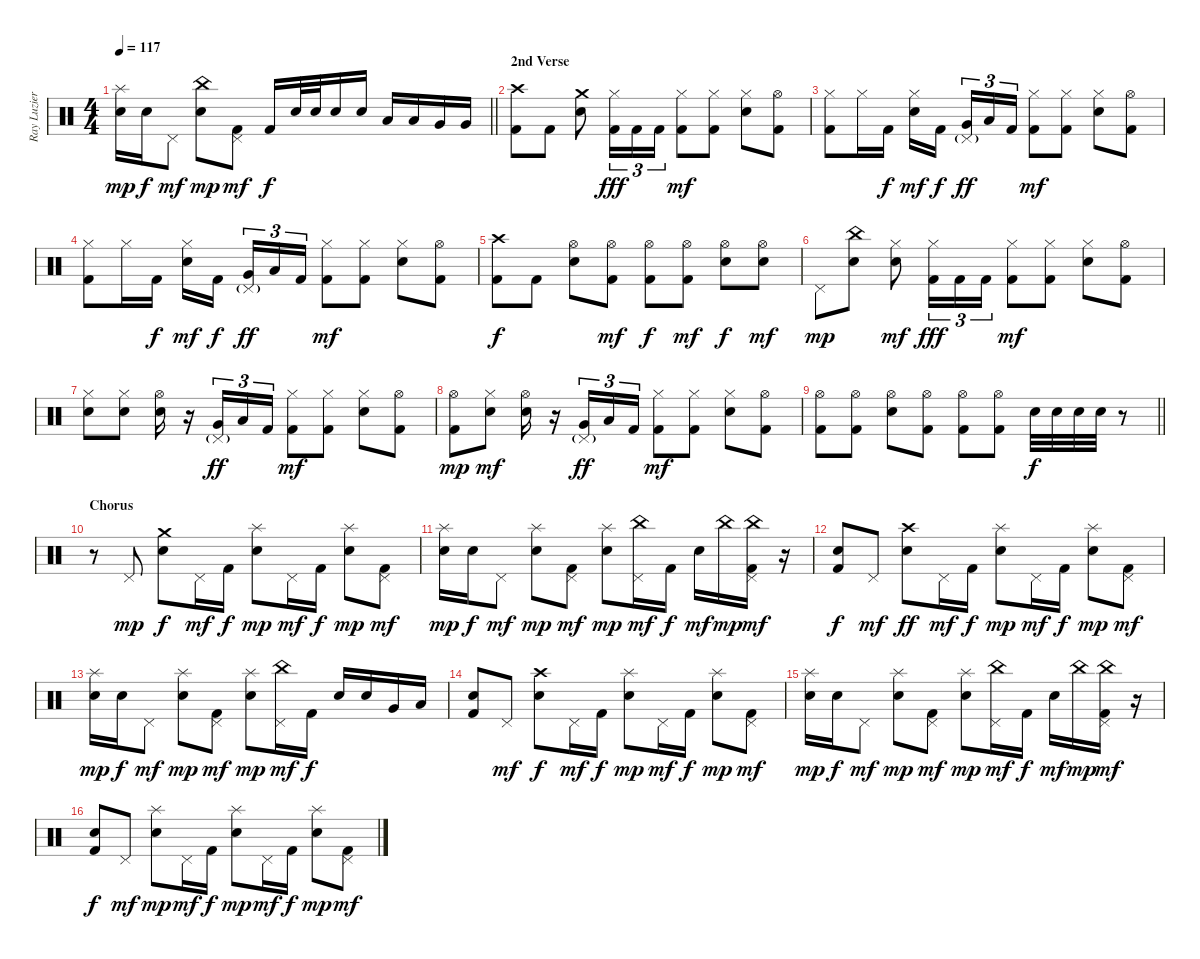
\track ("Ray Luzier" "Ray Luzier") {instrument percussion}
\staff {score}
\articulation defaults
\ts (4 4)
\tempo 117
\clef neutral
\barLineRight lightlight
\ks c
("Splash (hit)" "Snare (hit) 2").16{dy mp} "Snare (hit) 2".16{dy f} "Pedal Hi-Hat (hit)".8{dy mf} ("China (hit)" "Snare (hit) 2").8{dy mp} ("Pedal Hi-Hat (hit)" "Kick (hit) 2").8{dy mf} "Kick (hit) 2".16{dy f} "Snare (hit) 2".32 "Snare (hit) 2".32 "Snare (hit) 2".16 "Snare (hit) 2".16 "Low Tom (hit)".16 "Low Tom (hit)".16 "Very Low Tom (hit)".16 "Very Low Tom (hit)".16 |
\section ("" "2nd Verse")
("Crash high (hit)" "Kick (hit) 2").8 "Kick (hit) 2".8 ("Crash medium (hit)" "Snare (hit) 2").8 ("Hi-Hat (closed)" "Kick (hit) 2").16{tu (3 2) dy fff} "Kick (hit) 2".16{tu (3 2)} "Kick (hit) 2".16{tu (3 2)} ("Hi-Hat (closed)" "Kick (hit) 2").8{dy mf} ("Hi-Hat (closed)" "Kick (hit) 2").8 ("Hi-Hat (closed)" "Snare (hit) 2").8 ("Hi-Hat (open)" "Kick (hit) 2").8 |
("Hi-Hat (closed)" "Kick (hit) 2").8 "Hi-Hat (closed)".16 "Kick (hit) 2".16{dy f} ("Hi-Hat (closed)" "Snare (hit) 2").16{dy mf} "Kick (hit) 2".16{dy f beam splitsecondary} ("Pedal Hi-Hat (hit)"{g} "Very Low Tom (hit)").16{tu (3 2) dy ff} "Low Floor Tom (hit)".16{tu (3 2)} "Kick (hit) 2".16{tu (3 2)} ("Hi-Hat (closed)" "Kick (hit) 2").8{dy mf} ("Hi-Hat (closed)" "Kick (hit) 2").8 ("Hi-Hat (closed)" "Snare (hit) 2").8 ("Hi-Hat (open)" "Kick (hit) 2").8 |
("Hi-Hat (closed)" "Kick (hit) 2").8 "Hi-Hat (closed)".16 "Kick (hit) 2".16{dy f} ("Hi-Hat (closed)" "Snare (hit) 2").16{dy mf} "Kick (hit) 2".16{dy f beam splitsecondary} ("Pedal Hi-Hat (hit)"{g} "Very Low Tom (hit)").16{tu (3 2) dy ff} "Low Floor Tom (hit)".16{tu (3 2)} "Kick (hit) 2".16{tu (3 2)} ("Hi-Hat (closed)" "Kick (hit) 2").8{dy mf} ("Hi-Hat (closed)" "Kick (hit) 2").8 ("Hi-Hat (closed)" "Snare (hit) 2").8 ("Hi-Hat (open)" "Kick (hit) 2").8 |
("Crash high (hit)" "Kick (hit) 2").8{dy f} "Kick (hit) 2".8 ("Hi-Hat (open)" "Snare (hit) 2").8 ("Hi-Hat (open)" "Kick (hit) 2").8{dy mf} ("Hi-Hat (open)" "Kick (hit) 2").8{dy f} ("Hi-Hat (open)" "Kick (hit) 2").8{dy mf} ("Hi-Hat (open)" "Snare (hit) 2").8{dy f} ("Hi-Hat (open)" "Snare (hit) 2").8{dy mf} |
"Pedal Hi-Hat (hit)".8{dy mp} ("China (hit)" "Snare (hit) 2").8 ("Hi-Hat (closed)" "Snare (hit) 2").8{dy mf} ("Hi-Hat (closed)" "Kick (hit) 2").16{tu (3 2) dy fff} "Kick (hit) 2".16{tu (3 2)} "Kick (hit) 2".16{tu (3 2)} ("Hi-Hat (closed)" "Kick (hit) 2").8{dy mf} ("Hi-Hat (closed)" "Kick (hit) 2").8 ("Hi-Hat (closed)" "Snare (hit) 2").8 ("Hi-Hat (open)" "Kick (hit) 2").8 |
("Hi-Hat (closed)" "Snare (hit) 2").8 ("Hi-Hat (closed)" "Snare (hit) 2").8 ("Hi-Hat (open)" "Snare (hit) 2").16 r.16 ("Pedal Hi-Hat (hit)"{g} "Very Low Tom (hit)").16{tu (3 2) dy ff} "Low Floor Tom (hit)".16{tu (3 2)} "Kick (hit) 2".16{tu (3 2)} ("Hi-Hat (closed)" "Kick (hit) 2").8{dy mf} ("Hi-Hat (closed)" "Kick (hit) 2").8 ("Hi-Hat (closed)" "Snare (hit) 2").8 ("Hi-Hat (open)" "Kick (hit) 2").8 |
("Hi-Hat (open)" "Kick (hit) 2").8{dy mp} ("Hi-Hat (closed)" "Snare (hit) 2").8{dy mf} ("Hi-Hat (open)" "Snare (hit) 2").16 r.16 ("Pedal Hi-Hat (hit)"{g} "Very Low Tom (hit)").16{tu (3 2) dy ff} "Low Floor Tom (hit)".16{tu (3 2)} "Kick (hit) 2".16{tu (3 2)} ("Hi-Hat (closed)" "Kick (hit) 2").8{dy mf} ("Hi-Hat (closed)" "Kick (hit) 2").8 ("Hi-Hat (closed)" "Snare (hit) 2").8 ("Hi-Hat (open)" "Kick (hit) 2").8 |
\barLineRight lightlight
("Hi-Hat (open)" "Kick (hit) 2").8 ("Hi-Hat (open)" "Kick (hit) 2").8 ("Hi-Hat (open)" "Snare (hit) 2").8 ("Hi-Hat (open)" "Kick (hit) 2").8 ("Hi-Hat (open)" "Kick (hit) 2").8 ("Hi-Hat (open)" "Kick (hit) 2").8 "Snare (hit) 2".32{dy f} "Snare (hit) 2".32 "Snare (hit) 2".32 "Snare (hit) 2".32 r.8 |
\section ("" "Chorus")
r.8 "Pedal Hi-Hat (hit)".8{dy mp} ("Crash medium (hit)" "Snare (hit) 2").8{dy f} "Pedal Hi-Hat (hit)".16{dy mf} "Kick (hit) 2".16{dy f} ("Splash (hit)" "Snare (hit) 2").8{dy mp} "Pedal Hi-Hat (hit)".16{dy mf} "Kick (hit) 2".16{dy f} ("Splash (hit)" "Snare (hit) 2").8{dy mp} ("Pedal Hi-Hat (hit)" "Kick (hit) 2").8{dy mf} |
("Splash (hit)" "Snare (hit) 2").16{dy mp} "Snare (hit) 2".16{dy f} "Pedal Hi-Hat (hit)".8{dy mf} ("Splash (hit)" "Snare (hit) 2").8{dy mp} ("Pedal Hi-Hat (hit)" "Kick (hit) 2").8{dy mf} ("Splash (hit)" "Snare (hit) 2").8{dy mp} ("China (hit)" "Pedal Hi-Hat (hit)").16{dy mf} "Kick (hit) 2".16{dy f} "Snare (hit) 2".16{dy mf} "China (hit)".16{dy mp} ("China (hit)" "Pedal Hi-Hat (hit)" "Kick (hit) 2").16{dy mf} r.16 |
("Snare (hit) 2" "Kick (hit) 2").8{dy f} "Pedal Hi-Hat (hit)".8{dy mf} ("Crash high (hit)" "Snare (hit) 2").8{dy ff} "Pedal Hi-Hat (hit)".16{dy mf} "Kick (hit) 2".16{dy f} ("Splash (hit)" "Snare (hit) 2").8{dy mp} "Pedal Hi-Hat (hit)".16{dy mf} "Kick (hit) 2".16{dy f} ("Splash (hit)" "Snare (hit) 2").8{dy mp} ("Pedal Hi-Hat (hit)" "Kick (hit) 2").8{dy mf} |
("Splash (hit)" "Snare (hit) 2").16{dy mp} "Snare (hit) 2".16{dy f} "Pedal Hi-Hat (hit)".8{dy mf} ("Splash (hit)" "Snare (hit) 2").8{dy mp} ("Pedal Hi-Hat (hit)" "Kick (hit) 2").8{dy mf} ("Splash (hit)" "Snare (hit) 2").8{dy mp} ("China (hit)" "Pedal Hi-Hat (hit)").16{dy mf} "Kick (hit) 2".16{dy f} "Snare (hit) 2".16 "Snare (hit) 2".16 "Very Low Tom (hit)".16 "Low Floor Tom (hit)".16 |
("Snare (hit) 2" "Kick (hit) 2").8 "Pedal Hi-Hat (hit)".8{dy mf} ("Crash high (hit)" "Snare (hit) 2").8{dy f} "Pedal Hi-Hat (hit)".16{dy mf} "Kick (hit) 2".16{dy f} ("Splash (hit)" "Snare (hit) 2").8{dy mp} "Pedal Hi-Hat (hit)".16{dy mf} "Kick (hit) 2".16{dy f} ("Splash (hit)" "Snare (hit) 2").8{dy mp} ("Pedal Hi-Hat (hit)" "Kick (hit) 2").8{dy mf} |
("Splash (hit)" "Snare (hit) 2").16{dy mp} "Snare (hit) 2".16{dy f} "Pedal Hi-Hat (hit)".8{dy mf} ("Splash (hit)" "Snare (hit) 2").8{dy mp} ("Pedal Hi-Hat (hit)" "Kick (hit) 2").8{dy mf} ("Splash (hit)" "Snare (hit) 2").8{dy mp} ("China (hit)" "Pedal Hi-Hat (hit)").16{dy mf} "Kick (hit) 2".16{dy f} "Snare (hit) 2".16{dy mf} "China (hit)".16{dy mp} ("China (hit)" "Pedal Hi-Hat (hit)" "Kick (hit) 2").16{dy mf} r.16 |
("Snare (hit) 2" "Kick (hit) 2").8{dy f} "Pedal Hi-Hat (hit)".8{dy mf} ("Splash (hit)" "Snare (hit) 2").8{dy mp} "Pedal Hi-Hat (hit)".16{dy mf} "Kick (hit) 2".16{dy f} ("Splash (hit)" "Snare (hit) 2").8{dy mp} "Pedal Hi-Hat (hit)".16{dy mf} "Kick (hit) 2".16{dy f} ("Splash (hit)" "Snare (hit) 2").8{dy mp} ("Pedal Hi-Hat (hit)" "Kick (hit) 2").8{dy mf}
